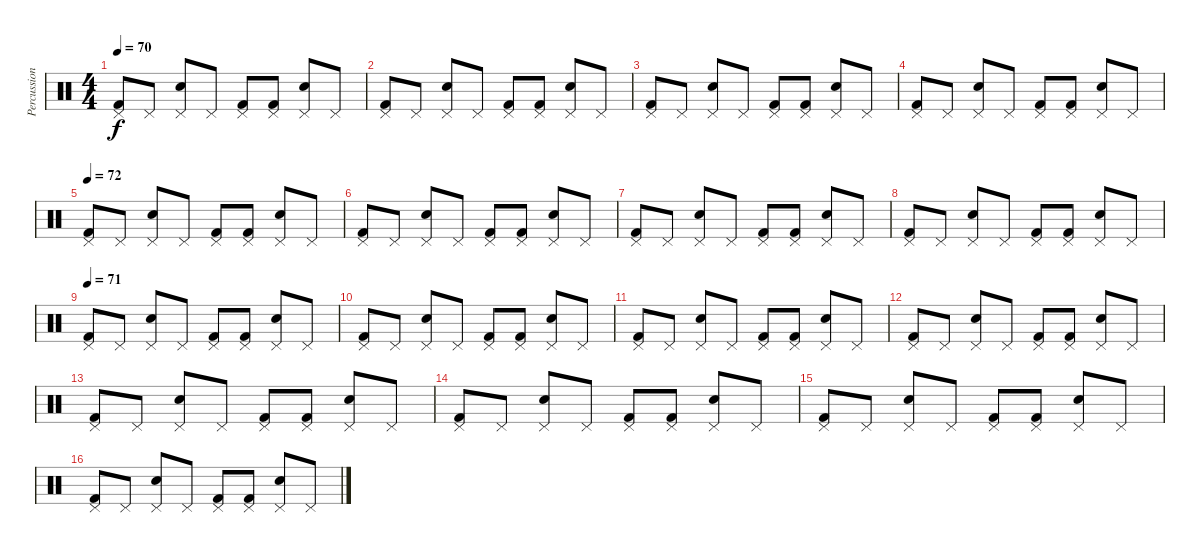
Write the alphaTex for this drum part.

\track ("Percussion" "Percussion") {instrument percussion}
\staff {score}
\articulation defaults
\ts (4 4)
\tempo 70
\clef neutral
\ks c
("Pedal Hi-Hat (hit)" "Kick (hit) 2").8{dy f} "Pedal Hi-Hat (hit)".8 ("Pedal Hi-Hat (hit)" "Snare (hit) 2").8 "Pedal Hi-Hat (hit)".8 ("Pedal Hi-Hat (hit)" "Kick (hit) 2").8 ("Pedal Hi-Hat (hit)" "Kick (hit) 2").8 ("Pedal Hi-Hat (hit)" "Snare (hit) 2").8 "Pedal Hi-Hat (hit)".8 |
("Pedal Hi-Hat (hit)" "Kick (hit) 2").8 "Pedal Hi-Hat (hit)".8 ("Pedal Hi-Hat (hit)" "Snare (hit) 2").8 "Pedal Hi-Hat (hit)".8 ("Pedal Hi-Hat (hit)" "Kick (hit) 2").8 ("Pedal Hi-Hat (hit)" "Kick (hit) 2").8 ("Pedal Hi-Hat (hit)" "Snare (hit) 2").8 "Pedal Hi-Hat (hit)".8 |
("Pedal Hi-Hat (hit)" "Kick (hit) 2").8 "Pedal Hi-Hat (hit)".8 ("Pedal Hi-Hat (hit)" "Snare (hit) 2").8 "Pedal Hi-Hat (hit)".8 ("Pedal Hi-Hat (hit)" "Kick (hit) 2").8 ("Pedal Hi-Hat (hit)" "Kick (hit) 2").8 ("Pedal Hi-Hat (hit)" "Snare (hit) 2").8 "Pedal Hi-Hat (hit)".8 |
("Pedal Hi-Hat (hit)" "Kick (hit) 2").8 "Pedal Hi-Hat (hit)".8 ("Pedal Hi-Hat (hit)" "Snare (hit) 2").8 "Pedal Hi-Hat (hit)".8 ("Pedal Hi-Hat (hit)" "Kick (hit) 2").8 ("Pedal Hi-Hat (hit)" "Kick (hit) 2").8 ("Pedal Hi-Hat (hit)" "Snare (hit) 2").8 "Pedal Hi-Hat (hit)".8 |
\tempo 72
("Pedal Hi-Hat (hit)" "Kick (hit) 2").8 "Pedal Hi-Hat (hit)".8 ("Pedal Hi-Hat (hit)" "Snare (hit) 2").8 "Pedal Hi-Hat (hit)".8 ("Pedal Hi-Hat (hit)" "Kick (hit) 2").8 ("Pedal Hi-Hat (hit)" "Kick (hit) 2").8 ("Pedal Hi-Hat (hit)" "Snare (hit) 2").8 "Pedal Hi-Hat (hit)".8 |
("Pedal Hi-Hat (hit)" "Kick (hit) 2").8 "Pedal Hi-Hat (hit)".8 ("Pedal Hi-Hat (hit)" "Snare (hit) 2").8 "Pedal Hi-Hat (hit)".8 ("Pedal Hi-Hat (hit)" "Kick (hit) 2").8 ("Pedal Hi-Hat (hit)" "Kick (hit) 2").8 ("Pedal Hi-Hat (hit)" "Snare (hit) 2").8 "Pedal Hi-Hat (hit)".8 |
("Pedal Hi-Hat (hit)" "Kick (hit) 2").8 "Pedal Hi-Hat (hit)".8 ("Pedal Hi-Hat (hit)" "Snare (hit) 2").8 "Pedal Hi-Hat (hit)".8 ("Pedal Hi-Hat (hit)" "Kick (hit) 2").8 ("Pedal Hi-Hat (hit)" "Kick (hit) 2").8 ("Pedal Hi-Hat (hit)" "Snare (hit) 2").8 "Pedal Hi-Hat (hit)".8 |
("Pedal Hi-Hat (hit)" "Kick (hit) 2").8 "Pedal Hi-Hat (hit)".8 ("Pedal Hi-Hat (hit)" "Snare (hit) 2").8 "Pedal Hi-Hat (hit)".8 ("Pedal Hi-Hat (hit)" "Kick (hit) 2").8 ("Pedal Hi-Hat (hit)" "Kick (hit) 2").8 ("Pedal Hi-Hat (hit)" "Snare (hit) 2").8 "Pedal Hi-Hat (hit)".8 |
\tempo 71
("Pedal Hi-Hat (hit)" "Kick (hit) 2").8 "Pedal Hi-Hat (hit)".8 ("Pedal Hi-Hat (hit)" "Snare (hit) 2").8 "Pedal Hi-Hat (hit)".8 ("Pedal Hi-Hat (hit)" "Kick (hit) 2").8 ("Pedal Hi-Hat (hit)" "Kick (hit) 2").8 ("Pedal Hi-Hat (hit)" "Snare (hit) 2").8 "Pedal Hi-Hat (hit)".8 |
("Pedal Hi-Hat (hit)" "Kick (hit) 2").8 "Pedal Hi-Hat (hit)".8 ("Pedal Hi-Hat (hit)" "Snare (hit) 2").8 "Pedal Hi-Hat (hit)".8 ("Pedal Hi-Hat (hit)" "Kick (hit) 2").8 ("Pedal Hi-Hat (hit)" "Kick (hit) 2").8 ("Pedal Hi-Hat (hit)" "Snare (hit) 2").8 "Pedal Hi-Hat (hit)".8 |
("Pedal Hi-Hat (hit)" "Kick (hit) 2").8 "Pedal Hi-Hat (hit)".8 ("Pedal Hi-Hat (hit)" "Snare (hit) 2").8 "Pedal Hi-Hat (hit)".8 ("Pedal Hi-Hat (hit)" "Kick (hit) 2").8 ("Pedal Hi-Hat (hit)" "Kick (hit) 2").8 ("Pedal Hi-Hat (hit)" "Snare (hit) 2").8 "Pedal Hi-Hat (hit)".8 |
("Pedal Hi-Hat (hit)" "Kick (hit) 2").8 "Pedal Hi-Hat (hit)".8 ("Pedal Hi-Hat (hit)" "Snare (hit) 2").8 "Pedal Hi-Hat (hit)".8 ("Pedal Hi-Hat (hit)" "Kick (hit) 2").8 ("Pedal Hi-Hat (hit)" "Kick (hit) 2").8 ("Pedal Hi-Hat (hit)" "Snare (hit) 2").8 "Pedal Hi-Hat (hit)".8 |
("Pedal Hi-Hat (hit)" "Kick (hit) 2").8 "Pedal Hi-Hat (hit)".8 ("Pedal Hi-Hat (hit)" "Snare (hit) 2").8 "Pedal Hi-Hat (hit)".8 ("Pedal Hi-Hat (hit)" "Kick (hit) 2").8 ("Pedal Hi-Hat (hit)" "Kick (hit) 2").8 ("Pedal Hi-Hat (hit)" "Snare (hit) 2").8 "Pedal Hi-Hat (hit)".8 |
("Pedal Hi-Hat (hit)" "Kick (hit) 2").8 "Pedal Hi-Hat (hit)".8 ("Pedal Hi-Hat (hit)" "Snare (hit) 2").8 "Pedal Hi-Hat (hit)".8 ("Pedal Hi-Hat (hit)" "Kick (hit) 2").8 ("Pedal Hi-Hat (hit)" "Kick (hit) 2").8 ("Pedal Hi-Hat (hit)" "Snare (hit) 2").8 "Pedal Hi-Hat (hit)".8 |
("Pedal Hi-Hat (hit)" "Kick (hit) 2").8 "Pedal Hi-Hat (hit)".8 ("Pedal Hi-Hat (hit)" "Snare (hit) 2").8 "Pedal Hi-Hat (hit)".8 ("Pedal Hi-Hat (hit)" "Kick (hit) 2").8 ("Pedal Hi-Hat (hit)" "Kick (hit) 2").8 ("Pedal Hi-Hat (hit)" "Snare (hit) 2").8 "Pedal Hi-Hat (hit)".8 |
("Pedal Hi-Hat (hit)" "Kick (hit) 2").8 "Pedal Hi-Hat (hit)".8 ("Pedal Hi-Hat (hit)" "Snare (hit) 2").8 "Pedal Hi-Hat (hit)".8 ("Pedal Hi-Hat (hit)" "Kick (hit) 2").8 ("Pedal Hi-Hat (hit)" "Kick (hit) 2").8 ("Pedal Hi-Hat (hit)" "Snare (hit) 2").8 "Pedal Hi-Hat (hit)".8
